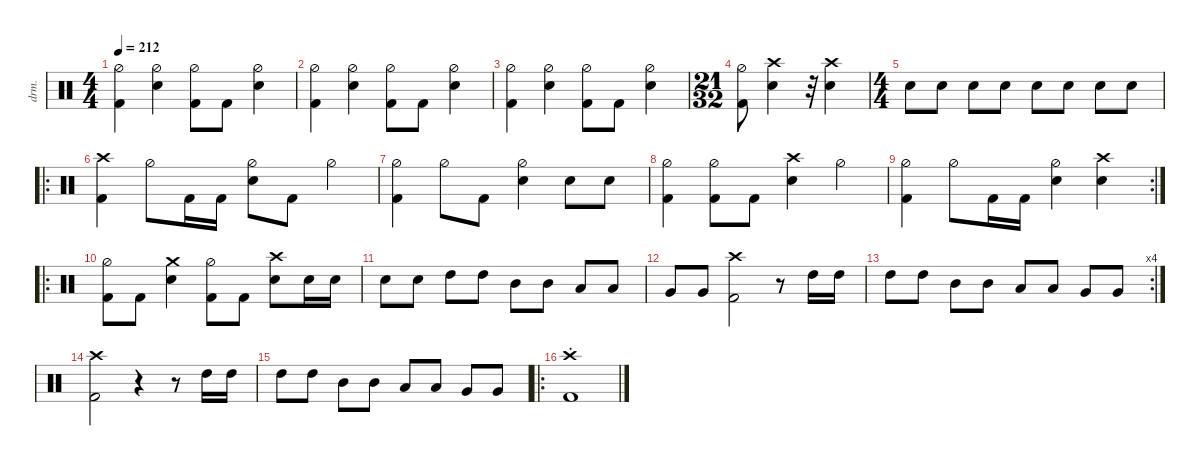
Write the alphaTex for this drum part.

\defaultSystemsLayout 4
\hideDynamics
\bracketExtendMode nobrackets
\track ("Drums" "drm.") {defaultSystemsLayout 4 multiBarRest instrument percussion}
\staff
\articulation defaults
\ts (4 4)
\beaming (8 2 2 2 2)
\tempo 212
\clef neutral
\ks c
("Kick (hit) 2" "Hi-Hat (half)").4{dy f} ("Hi-Hat (half)" "Snare (hit) 2").4 ("Hi-Hat (half)" "Kick (hit) 2").8 "Kick (hit) 2".8 ("Hi-Hat (half)" "Snare (hit) 2").4 |
("Kick (hit) 2" "Hi-Hat (half)").4 ("Hi-Hat (half)" "Snare (hit) 2").4 ("Hi-Hat (half)" "Kick (hit) 2").8 "Kick (hit) 2".8 ("Hi-Hat (half)" "Snare (hit) 2").4 |
("Kick (hit) 2" "Hi-Hat (half)").4 ("Hi-Hat (half)" "Snare (hit) 2").4 ("Hi-Hat (half)" "Kick (hit) 2").8 "Kick (hit) 2".8 ("Hi-Hat (half)" "Snare (hit) 2").4 |
\ts (21 32)
\beaming (8 3 2)
("Kick (hit) 2" "Hi-Hat (half)").8 ("Snare (hit) 2" "Crash high (hit)").4 r.32 ("Snare (hit) 2" "Crash high (hit)").4 |
\ts (4 4)
\beaming (8 2 2 2 2)
"Snare (hit) 2".8 "Snare (hit) 2".8 "Snare (hit) 2".8 "Snare (hit) 2".8 "Snare (hit) 2".8 "Snare (hit) 2".8 "Snare (hit) 2".8 "Snare (hit) 2".8 |
\ro
("Crash high (hit)" "Kick (hit) 2").4 "Hi-Hat (half)".8 "Kick (hit) 2".16 "Kick (hit) 2".16 ("Snare (hit) 2" "Hi-Hat (half)").8 "Kick (hit) 2".8 "Hi-Hat (half)".4 |
("Hi-Hat (half)" "Kick (hit) 2").4 "Hi-Hat (half)".8 "Kick (hit) 2".8 ("Hi-Hat (half)" "Snare (hit) 2").4 "Snare (hit) 2".8 "Snare (hit) 2".8 |
("Hi-Hat (half)" "Kick (hit) 2").4 ("Hi-Hat (half)" "Kick (hit) 2").8 "Kick (hit) 2".8 ("Snare (hit) 2" "Crash high (hit)").4 "Hi-Hat (half)".4 |
\rc 2
("Hi-Hat (half)" "Kick (hit) 2").4 "Hi-Hat (half)".8 "Kick (hit) 2".16 "Kick (hit) 2".16 ("Snare (hit) 2" "Hi-Hat (half)").4 ("Snare (hit) 2" "Crash high (hit)").4 |
\ro
("Hi-Hat (half)" "Kick (hit) 2").8 "Kick (hit) 2".8 ("Snare (hit) 2" "Crash medium (hit)").4 ("Hi-Hat (half)" "Kick (hit) 2").8 "Kick (hit) 2".8 ("Snare (hit) 2" "Crash high (hit)").8 "Snare (hit) 2".16{dy mp} "Snare (hit) 2".16{dy mf} |
"Snare (hit) 2".8{dy f} "Snare (hit) 2".8 "High Tom (hit)".8{dy ff} "High Tom (hit)".8 "Mid Tom (hit)".8 "Mid Tom (hit)".8 "Low Tom (hit)".8 "Low Tom (hit)".8 |
"Very Low Tom (hit)".8 "Very Low Tom (hit)".8 ("Kick (hit) 2" "Crash high (hit)").2{dy f} r.8 "High Tom (hit)".16{dy ff} "High Tom (hit)".16 |
\rc 4 "High Tom (hit)".8 "High Tom (hit)".8 "Mid Tom (hit)".8 "Mid Tom (hit)".8 "Low Tom (hit)".8 "Low Tom (hit)".8 "Very Low Tom (hit)".8 "Very Low Tom (hit)".8
|
("Kick (hit) 2" "Crash high (hit)").2{dy f} r.4 r.8 "High Tom (hit)".16{dy ff} "High Tom (hit)".16 |
"High Tom (hit)".8 "High Tom (hit)".8 "Mid Tom (hit)".8 "Mid Tom (hit)".8 "Low Tom (hit)".8 "Low Tom (hit)".8 "Very Low Tom (hit)".8 "Very Low Tom (hit)".8 |
\ro
("Kick (hit) 2" "Crash high (hit)"{st}).1{dy f}
